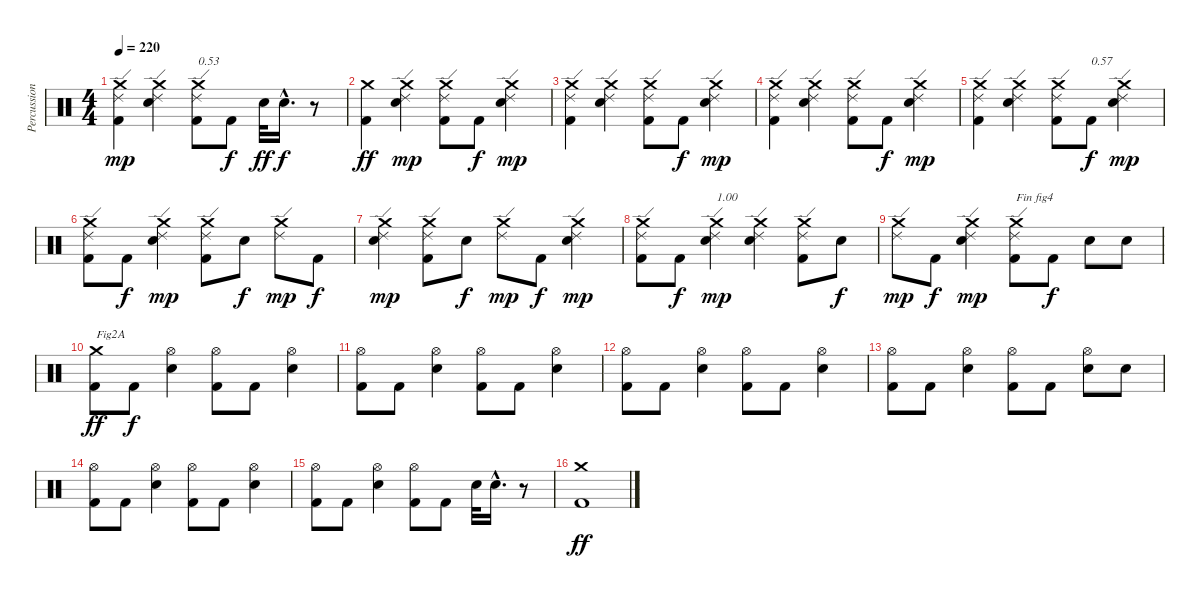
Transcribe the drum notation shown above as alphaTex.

\track ("Percussions" "Percussion") {instrument percussion}
\staff {score}
\articulation defaults
\ts (4 4)
\tempo 220
\clef neutral
\ks c
("Kick (hit) 2" "Ride (edge) 2" "Crash medium (hit)").4{dy mp} ("Electric Snare (hit)" "Ride (edge) 2" "Crash medium (hit)").4 ("Kick (hit) 2" "Ride (edge) 2" "Crash medium (hit)").8{txt "0.53"} "Kick (hit) 2".8{dy f} "Electric Snare (hit)".32{dy ff} "Electric Snare (hit)"{hac}.16{d dy f} r.8 |
("Kick (hit) 2" "Crash medium (hit)").4{dy ff} ("Electric Snare (hit)" "Ride (edge) 2" "Crash medium (hit)").4{dy mp} ("Kick (hit) 2" "Ride (edge) 2" "Crash medium (hit)").8 "Kick (hit) 2".8{dy f} ("Electric Snare (hit)" "Ride (edge) 2" "Crash medium (hit)").4{dy mp} |
("Kick (hit) 2" "Ride (edge) 2" "Crash medium (hit)").4 ("Electric Snare (hit)" "Ride (edge) 2" "Crash medium (hit)").4 ("Kick (hit) 2" "Ride (edge) 2" "Crash medium (hit)").8 "Kick (hit) 2".8{dy f} ("Electric Snare (hit)" "Ride (edge) 2" "Crash medium (hit)").4{dy mp} |
("Kick (hit) 2" "Ride (edge) 2" "Crash medium (hit)").4 ("Electric Snare (hit)" "Ride (edge) 2" "Crash medium (hit)").4 ("Kick (hit) 2" "Ride (edge) 2" "Crash medium (hit)").8 "Kick (hit) 2".8{dy f} ("Electric Snare (hit)" "Ride (edge) 2" "Crash medium (hit)").4{dy mp} |
("Kick (hit) 2" "Ride (edge) 2" "Crash medium (hit)").4 ("Electric Snare (hit)" "Ride (edge) 2" "Crash medium (hit)").4 ("Kick (hit) 2" "Ride (edge) 2" "Crash medium (hit)").8 "Kick (hit) 2".8{txt "0.57" dy f} ("Electric Snare (hit)" "Ride (edge) 2" "Crash medium (hit)").4{dy mp} |
("Kick (hit) 2" "Ride (edge) 2" "Crash medium (hit)").8 "Kick (hit) 2".8{dy f} ("Electric Snare (hit)" "Ride (edge) 2" "Crash medium (hit)").4{dy mp} ("Kick (hit) 2" "Ride (edge) 2" "Crash medium (hit)").8 "Electric Snare (hit)".8{dy f} ("Ride (edge) 2" "Crash medium (hit)").8{dy mp} "Kick (hit) 2".8{dy f} |
("Electric Snare (hit)" "Ride (edge) 2" "Crash medium (hit)").4{dy mp} ("Kick (hit) 2" "Ride (edge) 2" "Crash medium (hit)").8 "Electric Snare (hit)".8{dy f} ("Ride (edge) 2" "Crash medium (hit)").8{dy mp} "Kick (hit) 2".8{dy f} ("Electric Snare (hit)" "Ride (edge) 2" "Crash medium (hit)").4{dy mp} |
("Kick (hit) 2" "Ride (edge) 2" "Crash medium (hit)").8 "Kick (hit) 2".8{dy f} ("Electric Snare (hit)" "Ride (edge) 2" "Crash medium (hit)").4{txt "1.00" dy mp} ("Electric Snare (hit)" "Ride (edge) 2" "Crash medium (hit)").4 ("Kick (hit) 2" "Ride (edge) 2" "Crash medium (hit)").8 "Electric Snare (hit)".8{dy f} |
("Ride (edge) 2" "Crash medium (hit)").8{dy mp} "Kick (hit) 2".8{dy f} ("Electric Snare (hit)" "Ride (edge) 2" "Crash medium (hit)").4{dy mp} ("Kick (hit) 2" "Ride (edge) 2" "Crash medium (hit)").8{txt "Fin fig4"} "Kick (hit) 2".8{dy f} "Electric Snare (hit)".8 "Electric Snare (hit)".8 |
("Kick (hit) 2" "Crash medium (hit)").8{txt "Fig2A" dy ff} "Kick (hit) 2".8{dy f} ("Electric Snare (hit)" "Hi-Hat (open)").4 ("Kick (hit) 2" "Hi-Hat (open)").8 "Kick (hit) 2".8 ("Electric Snare (hit)" "Hi-Hat (open)").4 |
("Kick (hit) 2" "Hi-Hat (open)").8 "Kick (hit) 2".8 ("Electric Snare (hit)" "Hi-Hat (open)").4 ("Kick (hit) 2" "Hi-Hat (open)").8 "Kick (hit) 2".8 ("Electric Snare (hit)" "Hi-Hat (open)").4 |
("Kick (hit) 2" "Hi-Hat (open)").8 "Kick (hit) 2".8 ("Electric Snare (hit)" "Hi-Hat (open)").4 ("Kick (hit) 2" "Hi-Hat (open)").8 "Kick (hit) 2".8 ("Electric Snare (hit)" "Hi-Hat (open)").4 |
("Kick (hit) 2" "Hi-Hat (open)").8 "Kick (hit) 2".8 ("Electric Snare (hit)" "Hi-Hat (open)").4 ("Kick (hit) 2" "Hi-Hat (open)").8 "Kick (hit) 2".8 ("Electric Snare (hit)" "Hi-Hat (open)").8 "Electric Snare (hit)".8 |
("Kick (hit) 2" "Hi-Hat (open)").8 "Kick (hit) 2".8 ("Electric Snare (hit)" "Hi-Hat (open)").4 ("Kick (hit) 2" "Hi-Hat (open)").8 "Kick (hit) 2".8 ("Electric Snare (hit)" "Hi-Hat (open)").4 |
("Kick (hit) 2" "Hi-Hat (open)").8 "Kick (hit) 2".8 ("Electric Snare (hit)" "Hi-Hat (open)").4 ("Kick (hit) 2" "Hi-Hat (open)").8 "Kick (hit) 2".8 "Electric Snare (hit)".32 "Electric Snare (hit)"{hac}.16{d} r.8 |
("Kick (hit) 2" "Crash medium (hit)").1{dy ff}
